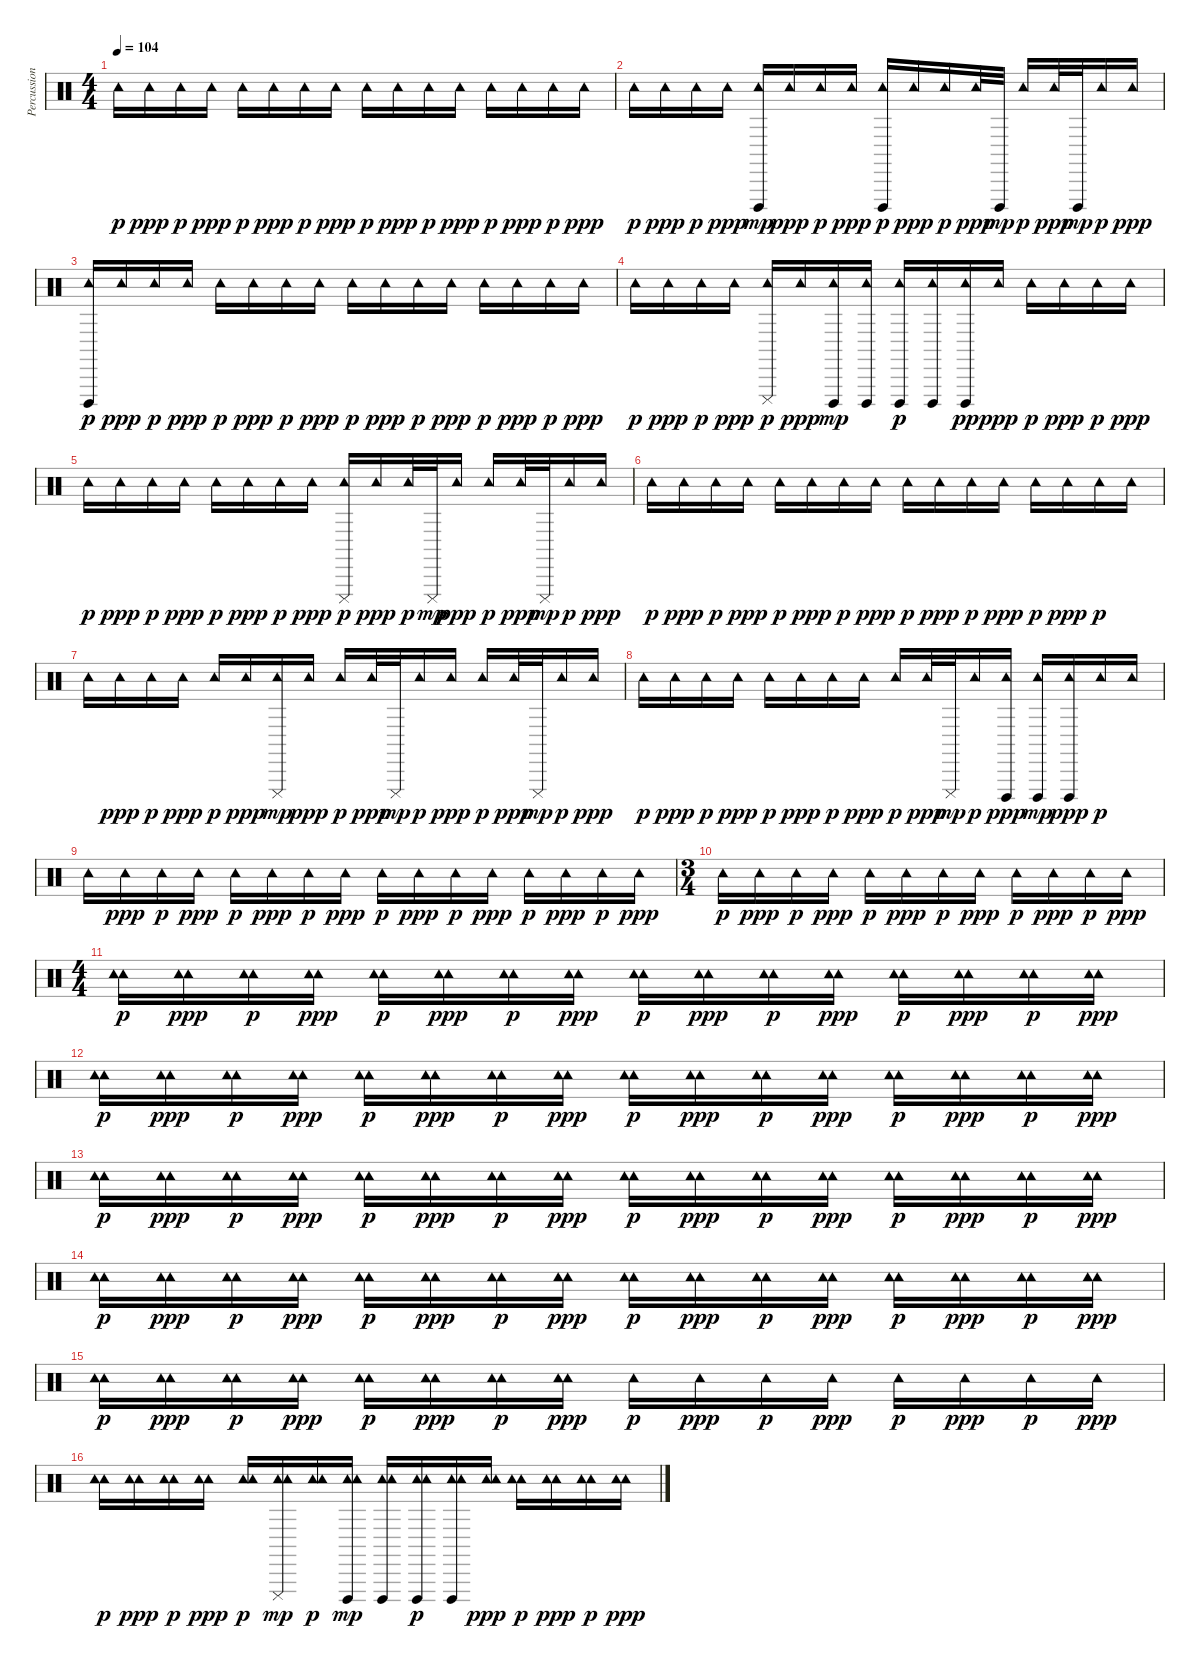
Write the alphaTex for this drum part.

\track ("Percussion & Drums" "Percussion") {instrument percussion}
\staff {score}
\articulation defaults
\ts (4 4)
\tempo 104
\clef neutral
\ks c "Tambourine (hit)".16{dy p} "Tambourine (hit)".16{dy ppp} "Tambourine (hit)".16{dy p} "Tambourine (hit)".16{dy ppp} "Tambourine (hit)".16{dy p} "Tambourine (hit)".16{dy ppp} "Tambourine (hit)".16{dy p} "Tambourine (hit)".16{dy ppp} "Tambourine (hit)".16{dy p} "Tambourine (hit)".16{dy ppp} "Tambourine (hit)".16{dy p} "Tambourine (hit)".16{dy ppp} "Tambourine (hit)".16{dy p} "Tambourine (hit)".16{dy ppp} "Tambourine (hit)".16{dy p} "Tambourine (hit)".16{dy ppp}
|
"Tambourine (hit)".16{dy p} "Tambourine (hit)".16{dy ppp} "Tambourine (hit)".16{dy p} "Tambourine (hit)".16{dy ppp} ("Cuica (open)" "Tambourine (hit)").16{dy mp} "Tambourine (hit)".16{dy ppp} "Tambourine (hit)".16{dy p} "Tambourine (hit)".16{dy ppp} ("Cuica (open)" "Tambourine (hit)").16{dy p} "Tambourine (hit)".16{dy ppp} "Tambourine (hit)".16{dy p} "Tambourine (hit)".32{dy ppp} "Cuica (open)".32{dy mp} "Tambourine (hit)".16{dy p} "Tambourine (hit)".32{dy ppp} "Cuica (open)".32{dy mp} "Tambourine (hit)".16{dy p} "Tambourine (hit)".16{dy ppp} |
("Cuica (open)" "Tambourine (hit)").16{dy p} "Tambourine (hit)".16{dy ppp} "Tambourine (hit)".16{dy p} "Tambourine (hit)".16{dy ppp} "Tambourine (hit)".16{dy p} "Tambourine (hit)".16{dy ppp} "Tambourine (hit)".16{dy p} "Tambourine (hit)".16{dy ppp} "Tambourine (hit)".16{dy p} "Tambourine (hit)".16{dy ppp} "Tambourine (hit)".16{dy p} "Tambourine (hit)".16{dy ppp} "Tambourine (hit)".16{dy p} "Tambourine (hit)".16{dy ppp} "Tambourine (hit)".16{dy p} "Tambourine (hit)".16{dy ppp} |
"Tambourine (hit)".16{dy p} "Tambourine (hit)".16{dy ppp} "Tambourine (hit)".16{dy p} "Tambourine (hit)".16{dy ppp} ("Cuica (mute)" "Tambourine (hit)").16{dy p} "Tambourine (hit)".16{dy ppp} ("Cuica (open)" "Tambourine (hit)").16{dy mp} ("Cuica (open)" "Tambourine (hit)").16 ("Cuica (open)" "Tambourine (hit)").16{dy p} ("Cuica (open)" "Tambourine (hit)").16 ("Cuica (open)" "Tambourine (hit)").16{dy pp} "Tambourine (hit)".16{dy ppp} "Tambourine (hit)".16{dy p} "Tambourine (hit)".16{dy ppp} "Tambourine (hit)".16{dy p} "Tambourine (hit)".16{dy ppp} |
"Tambourine (hit)".16{dy p} "Tambourine (hit)".16{dy ppp} "Tambourine (hit)".16{dy p} "Tambourine (hit)".16{dy ppp} "Tambourine (hit)".16{dy p} "Tambourine (hit)".16{dy ppp} "Tambourine (hit)".16{dy p} "Tambourine (hit)".16{dy ppp} ("Cuica (mute)" "Tambourine (hit)").16{dy p} "Tambourine (hit)".16{dy ppp} "Tambourine (hit)".32{dy p} "Cuica (mute)".32{dy mp} "Tambourine (hit)".16{dy ppp} "Tambourine (hit)".16{dy p} "Tambourine (hit)".32{dy ppp} "Cuica (mute)".32{dy mp} "Tambourine (hit)".16{dy p} "Tambourine (hit)".16{dy ppp} |
"Tambourine (hit)".16{dy p} "Tambourine (hit)".16{dy ppp} "Tambourine (hit)".16{dy p} "Tambourine (hit)".16{dy ppp} "Tambourine (hit)".16{dy p} "Tambourine (hit)".16{dy ppp} "Tambourine (hit)".16{dy p} "Tambourine (hit)".16{dy ppp} "Tambourine (hit)".16{dy p} "Tambourine (hit)".16{dy ppp} "Tambourine (hit)".16{dy p} "Tambourine (hit)".16{dy ppp} "Tambourine (hit)".16{dy p} "Tambourine (hit)".16{dy ppp} "Tambourine (hit)".16{dy p} "Tambourine (hit)".16 |
"Tambourine (hit)".16 "Tambourine (hit)".16{dy ppp} "Tambourine (hit)".16{dy p} "Tambourine (hit)".16{dy ppp} "Tambourine (hit)".16{dy p} "Tambourine (hit)".16{dy ppp} ("Tambourine (hit)" "Cuica (mute)").16{dy mp} "Tambourine (hit)".16{dy ppp} "Tambourine (hit)".16{dy p} "Tambourine (hit)".32{dy ppp} "Cuica (mute)".32{dy mp} "Tambourine (hit)".16{dy p} "Tambourine (hit)".16{dy ppp} "Tambourine (hit)".16{dy p} "Tambourine (hit)".32{dy ppp} "Cuica (mute)".32{dy mp} "Tambourine (hit)".16{dy p} "Tambourine (hit)".16{dy ppp} |
"Tambourine (hit)".16{dy p} "Tambourine (hit)".16{dy ppp} "Tambourine (hit)".16{dy p} "Tambourine (hit)".16{dy ppp} "Tambourine (hit)".16{dy p} "Tambourine (hit)".16{dy ppp} "Tambourine (hit)".16{dy p} "Tambourine (hit)".16{dy ppp} "Tambourine (hit)".16{dy p} "Tambourine (hit)".32{dy ppp} "Cuica (mute)".32{dy mp} "Tambourine (hit)".16{dy p} ("Cuica (open)" "Tambourine (hit)").16{dy ppp} ("Tambourine (hit)" "Cuica (open)").16{dy mp} ("Cuica (open)" "Tambourine (hit)").16{dy ppp} "Tambourine (hit)".16{dy p} "Tambourine (hit)".16 |
"Tambourine (hit)".16 "Tambourine (hit)".16{dy ppp} "Tambourine (hit)".16{dy p} "Tambourine (hit)".16{dy ppp} "Tambourine (hit)".16{dy p} "Tambourine (hit)".16{dy ppp} "Tambourine (hit)".16{dy p} "Tambourine (hit)".16{dy ppp} "Tambourine (hit)".16{dy p} "Tambourine (hit)".16{dy ppp} "Tambourine (hit)".16{dy p} "Tambourine (hit)".16{dy ppp} "Tambourine (hit)".16{dy p} "Tambourine (hit)".16{dy ppp} "Tambourine (hit)".16{dy p} "Tambourine (hit)".16{dy ppp} |
\ts (3 4)
"Tambourine (hit)".16{dy p} "Tambourine (hit)".16{dy ppp} "Tambourine (hit)".16{dy p} "Tambourine (hit)".16{dy ppp} "Tambourine (hit)".16{dy p} "Tambourine (hit)".16{dy ppp} "Tambourine (hit)".16{dy p} "Tambourine (hit)".16{dy ppp} "Tambourine (hit)".16{dy p} "Tambourine (hit)".16{dy ppp} "Tambourine (hit)".16{dy p} "Tambourine (hit)".16{dy ppp} |
\ts (4 4)
("Tambourine (hit)" "Tambourine (hit)").16{dy p} ("Tambourine (hit)" "Tambourine (hit)").16{dy ppp} ("Tambourine (hit)" "Tambourine (hit)").16{dy p} ("Tambourine (hit)" "Tambourine (hit)").16{dy ppp} ("Tambourine (hit)" "Tambourine (hit)").16{dy p} ("Tambourine (hit)" "Tambourine (hit)").16{dy ppp} ("Tambourine (hit)" "Tambourine (hit)").16{dy p} ("Tambourine (hit)" "Tambourine (hit)").16{dy ppp} ("Tambourine (hit)" "Tambourine (hit)").16{dy p} ("Tambourine (hit)" "Tambourine (hit)").16{dy ppp} ("Tambourine (hit)" "Tambourine (hit)").16{dy p} ("Tambourine (hit)" "Tambourine (hit)").16{dy ppp} ("Tambourine (hit)" "Tambourine (hit)").16{dy p} ("Tambourine (hit)" "Tambourine (hit)").16{dy ppp} ("Tambourine (hit)" "Tambourine (hit)").16{dy p} ("Tambourine (hit)" "Tambourine (hit)").16{dy ppp} |
("Tambourine (hit)" "Tambourine (hit)").16{dy p} ("Tambourine (hit)" "Tambourine (hit)").16{dy ppp} ("Tambourine (hit)" "Tambourine (hit)").16{dy p} ("Tambourine (hit)" "Tambourine (hit)").16{dy ppp} ("Tambourine (hit)" "Tambourine (hit)").16{dy p} ("Tambourine (hit)" "Tambourine (hit)").16{dy ppp} ("Tambourine (hit)" "Tambourine (hit)").16{dy p} ("Tambourine (hit)" "Tambourine (hit)").16{dy ppp} ("Tambourine (hit)" "Tambourine (hit)").16{dy p} ("Tambourine (hit)" "Tambourine (hit)").16{dy ppp} ("Tambourine (hit)" "Tambourine (hit)").16{dy p} ("Tambourine (hit)" "Tambourine (hit)").16{dy ppp} ("Tambourine (hit)" "Tambourine (hit)").16{dy p} ("Tambourine (hit)" "Tambourine (hit)").16{dy ppp} ("Tambourine (hit)" "Tambourine (hit)").16{dy p} ("Tambourine (hit)" "Tambourine (hit)").16{dy ppp} |
("Tambourine (hit)" "Tambourine (hit)").16{dy p} ("Tambourine (hit)" "Tambourine (hit)").16{dy ppp} ("Tambourine (hit)" "Tambourine (hit)").16{dy p} ("Tambourine (hit)" "Tambourine (hit)").16{dy ppp} ("Tambourine (hit)" "Tambourine (hit)").16{dy p} ("Tambourine (hit)" "Tambourine (hit)").16{dy ppp} ("Tambourine (hit)" "Tambourine (hit)").16{dy p} ("Tambourine (hit)" "Tambourine (hit)").16{dy ppp} ("Tambourine (hit)" "Tambourine (hit)").16{dy p} ("Tambourine (hit)" "Tambourine (hit)").16{dy ppp} ("Tambourine (hit)" "Tambourine (hit)").16{dy p} ("Tambourine (hit)" "Tambourine (hit)").16{dy ppp} ("Tambourine (hit)" "Tambourine (hit)").16{dy p} ("Tambourine (hit)" "Tambourine (hit)").16{dy ppp} ("Tambourine (hit)" "Tambourine (hit)").16{dy p} ("Tambourine (hit)" "Tambourine (hit)").16{dy ppp} |
("Tambourine (hit)" "Tambourine (hit)").16{dy p} ("Tambourine (hit)" "Tambourine (hit)").16{dy ppp} ("Tambourine (hit)" "Tambourine (hit)").16{dy p} ("Tambourine (hit)" "Tambourine (hit)").16{dy ppp} ("Tambourine (hit)" "Tambourine (hit)").16{dy p} ("Tambourine (hit)" "Tambourine (hit)").16{dy ppp} ("Tambourine (hit)" "Tambourine (hit)").16{dy p} ("Tambourine (hit)" "Tambourine (hit)").16{dy ppp} ("Tambourine (hit)" "Tambourine (hit)").16{dy p} ("Tambourine (hit)" "Tambourine (hit)").16{dy ppp} ("Tambourine (hit)" "Tambourine (hit)").16{dy p} ("Tambourine (hit)" "Tambourine (hit)").16{dy ppp} ("Tambourine (hit)" "Tambourine (hit)").16{dy p} ("Tambourine (hit)" "Tambourine (hit)").16{dy ppp} ("Tambourine (hit)" "Tambourine (hit)").16{dy p} ("Tambourine (hit)" "Tambourine (hit)").16{dy ppp} |
("Tambourine (hit)" "Tambourine (hit)").16{dy p} ("Tambourine (hit)" "Tambourine (hit)").16{dy ppp} ("Tambourine (hit)" "Tambourine (hit)").16{dy p} ("Tambourine (hit)" "Tambourine (hit)").16{dy ppp} ("Tambourine (hit)" "Tambourine (hit)").16{dy p} ("Tambourine (hit)" "Tambourine (hit)").16{dy ppp} ("Tambourine (hit)" "Tambourine (hit)").16{dy p} ("Tambourine (hit)" "Tambourine (hit)").16{dy ppp} "Tambourine (hit)".16{dy p} "Tambourine (hit)".16{dy ppp} "Tambourine (hit)".16{dy p} "Tambourine (hit)".16{dy ppp} "Tambourine (hit)".16{dy p} "Tambourine (hit)".16{dy ppp} "Tambourine (hit)".16{dy p} "Tambourine (hit)".16{dy ppp} |
("Tambourine (hit)" "Tambourine (hit)").16{dy p} ("Tambourine (hit)" "Tambourine (hit)").16{dy ppp} ("Tambourine (hit)" "Tambourine (hit)").16{dy p} ("Tambourine (hit)" "Tambourine (hit)").16{dy ppp} ("Tambourine (hit)" "Tambourine (hit)").16{dy p} ("Tambourine (hit)" "Tambourine (hit)" "Cuica (mute)").16{dy mp} ("Tambourine (hit)" "Tambourine (hit)").16{dy p} ("Cuica (open)" "Tambourine (hit)" "Tambourine (hit)").16{dy mp} ("Cuica (open)" "Tambourine (hit)" "Tambourine (hit)").16 ("Cuica (open)" "Tambourine (hit)" "Tambourine (hit)").16{dy p} ("Cuica (open)" "Tambourine (hit)" "Tambourine (hit)").16 ("Tambourine (hit)" "Tambourine (hit)").16{dy ppp} ("Tambourine (hit)" "Tambourine (hit)").16{dy p} ("Tambourine (hit)" "Tambourine (hit)").16{dy ppp} ("Tambourine (hit)" "Tambourine (hit)").16{dy p} ("Tambourine (hit)" "Tambourine (hit)").16{dy ppp}
